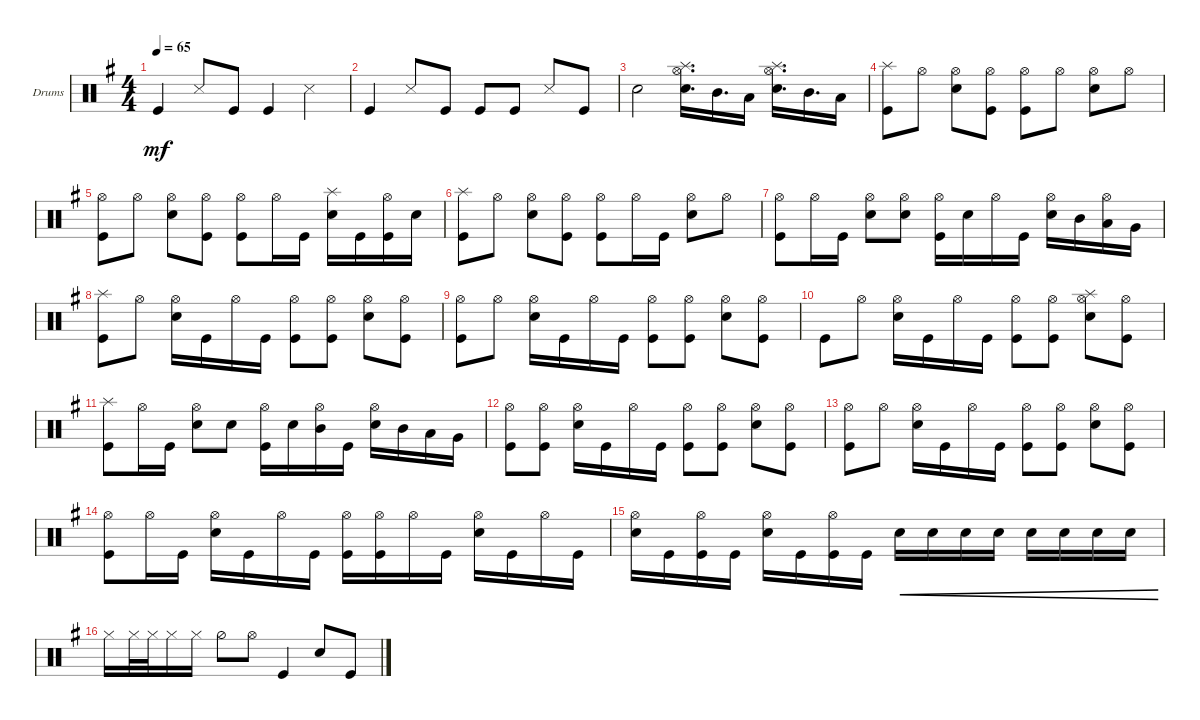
\defaultSystemsLayout 4
\bracketExtendMode groupsimilarinstruments
\firstSystemTrackNameOrientation horizontal
\otherSystemsTrackNameOrientation horizontal
\track ("Drumkit" "Drums") {instrument percussion}
\staff {score}
\articulation defaults
\ts (4 4)
\tempo 65
\clef neutral
\ks g "Kick (hit)".4{dy mf} "Snare (side stick) 3".8 "Kick (hit)".8 "Kick (hit)".4 "Snare (side stick) 3".4
|
"Kick (hit)".4 "Snare (side stick) 3".8 "Kick (hit)".8 "Kick (hit)".8 "Kick (hit)".8 "Snare (side stick) 3".8 "Kick (hit)".8 |
"Snare (hit) 2".2 ("Snare (hit) 2" "Splash (hit)" "Hi-Hat (open)").16{d} "Mid Tom (hit)".16{d} "Low Tom (hit)".16 ("Snare (hit) 2" "Splash (hit)" "Hi-Hat (open)").16{d} "Mid Tom (hit)".16{d} "Low Tom (hit)".16 |
("Kick (hit)" "Splash (hit)").8 "Hi-Hat (open)".8 ("Hi-Hat (open)" "Snare (hit) 2").8 ("Hi-Hat (open)" "Kick (hit)").8 ("Hi-Hat (open)" "Kick (hit)").8 "Hi-Hat (open)".8 ("Hi-Hat (open)" "Snare (hit) 2").8 "Hi-Hat (open)".8 |
("Kick (hit)" "Hi-Hat (open)").8 "Hi-Hat (open)".8 ("Hi-Hat (open)" "Snare (hit) 2").8 ("Hi-Hat (open)" "Kick (hit)").8 ("Hi-Hat (open)" "Kick (hit)").8 "Hi-Hat (open)".16 "Kick (hit)".16 ("Snare (hit) 2" "Splash (hit)").16 "Kick (hit)".16 ("Hi-Hat (open)" "Kick (hit)").16 "Snare (hit) 2".16 |
("Kick (hit)" "Splash (hit)").8 "Hi-Hat (open)".8 ("Hi-Hat (open)" "Snare (hit) 2").8 ("Hi-Hat (open)" "Kick (hit)").8 ("Hi-Hat (open)" "Kick (hit)").8 "Hi-Hat (open)".16 "Kick (hit)".16 ("Hi-Hat (open)" "Snare (hit) 2").8 "Hi-Hat (open)".8 |
("Kick (hit)" "Hi-Hat (open)").8 "Hi-Hat (open)".16 "Kick (hit)".16 ("Snare (hit) 2" "Hi-Hat (open)").8 ("Snare (hit) 2" "Hi-Hat (open)").8 ("Kick (hit)" "Hi-Hat (open)").16 "Snare (hit) 2".16 "Hi-Hat (open)".16 "Kick (hit)".16 ("Snare (hit) 2" "Hi-Hat (open)").16 "Mid Tom (hit)".16 ("Low Tom (hit)" "Hi-Hat (open)").16 "Very Low Tom (hit)".16 |
("Kick (hit)" "Splash (hit)").8 "Hi-Hat (open)".8 ("Snare (hit) 2" "Hi-Hat (open)").16 "Kick (hit)".16 "Hi-Hat (open)".16 "Kick (hit)".16 ("Kick (hit)" "Hi-Hat (open)").8 ("Kick (hit)" "Hi-Hat (open)").8 ("Snare (hit) 2" "Hi-Hat (open)").8 ("Kick (hit)" "Hi-Hat (open)").8 |
("Kick (hit)" "Hi-Hat (open)").8 "Hi-Hat (open)".8 ("Snare (hit) 2" "Hi-Hat (open)").16 "Kick (hit)".16 "Hi-Hat (open)".16 "Kick (hit)".16 ("Kick (hit)" "Hi-Hat (open)").8 ("Kick (hit)" "Hi-Hat (open)").8 ("Snare (hit) 2" "Hi-Hat (open)").8 ("Kick (hit)" "Hi-Hat (open)").8 |
"Kick (hit)".8 "Hi-Hat (open)".8 ("Snare (hit) 2" "Hi-Hat (open)").16 "Kick (hit)".16 "Hi-Hat (open)".16 "Kick (hit)".16 ("Kick (hit)" "Hi-Hat (open)").8 ("Kick (hit)" "Hi-Hat (open)").8 ("Snare (hit) 2" "Hi-Hat (open)" "Splash (hit)").8 ("Kick (hit)" "Hi-Hat (open)").8 |
("Kick (hit)" "Splash (hit)").8 "Hi-Hat (open)".16 "Kick (hit)".16 ("Snare (hit) 2" "Hi-Hat (open)").8 "Snare (hit) 2".8 ("Hi-Hat (open)" "Kick (hit)").16 "Snare (hit) 2".16 ("Hi-Hat (open)" "Mid Tom (hit)").16 "Kick (hit)".16 ("Snare (hit) 2" "Hi-Hat (open)").16 "Mid Tom (hit)".16 "Low Tom (hit)".16 "Very Low Tom (hit)".16 |
("Kick (hit)" "Hi-Hat (open)").8 ("Hi-Hat (open)" "Kick (hit)").8 ("Snare (hit) 2" "Hi-Hat (open)").16 "Kick (hit)".16 "Hi-Hat (open)".16 "Kick (hit)".16 ("Kick (hit)" "Hi-Hat (open)").8 ("Kick (hit)" "Hi-Hat (open)").8 ("Snare (hit) 2" "Hi-Hat (open)").8 ("Kick (hit)" "Hi-Hat (open)").8 |
("Kick (hit)" "Hi-Hat (open)").8 "Hi-Hat (open)".8 ("Snare (hit) 2" "Hi-Hat (open)").16 "Kick (hit)".16 "Hi-Hat (open)".16 "Kick (hit)".16 ("Kick (hit)" "Hi-Hat (open)").8 ("Kick (hit)" "Hi-Hat (open)").8 ("Snare (hit) 2" "Hi-Hat (open)").8 ("Kick (hit)" "Hi-Hat (open)").8 |
("Kick (hit)" "Hi-Hat (open)").8 "Hi-Hat (open)".16 "Kick (hit)".16 ("Snare (hit) 2" "Hi-Hat (open)").16 "Kick (hit)".16 "Hi-Hat (open)".16 "Kick (hit)".16 ("Kick (hit)" "Hi-Hat (open)").16 ("Kick (hit)" "Hi-Hat (open)").16 "Hi-Hat (open)".16 "Kick (hit)".16 ("Hi-Hat (open)" "Snare (hit) 2").16 "Kick (hit)".16 "Hi-Hat (open)".16 "Kick (hit)".16 |
("Snare (hit) 2" "Hi-Hat (open)").16 "Kick (hit)".16 ("Kick (hit)" "Hi-Hat (open)").16 "Kick (hit)".16 ("Snare (hit) 2" "Hi-Hat (open)").16 "Kick (hit)".16 ("Kick (hit)" "Hi-Hat (open)").16 "Kick (hit)".16 "Snare (hit) 2".16{cre} "Snare (hit) 2".16{cre} "Snare (hit) 2".16{cre} "Snare (hit) 2".16{cre} "Snare (hit) 2".16{cre} "Snare (hit) 2".16{cre} "Snare (hit) 2".16{cre} "Snare (hit) 2".16{cre} |
"Hi-Hat (closed)".16 "Hi-Hat (closed)".32 "Hi-Hat (closed)".32 "Hi-Hat (closed)".16 "Hi-Hat (closed)".16 "Hi-Hat (half)".8 "Hi-Hat (open)".8 "Kick (hit)".4 "Snare (hit) 2".8 "Kick (hit)".8
